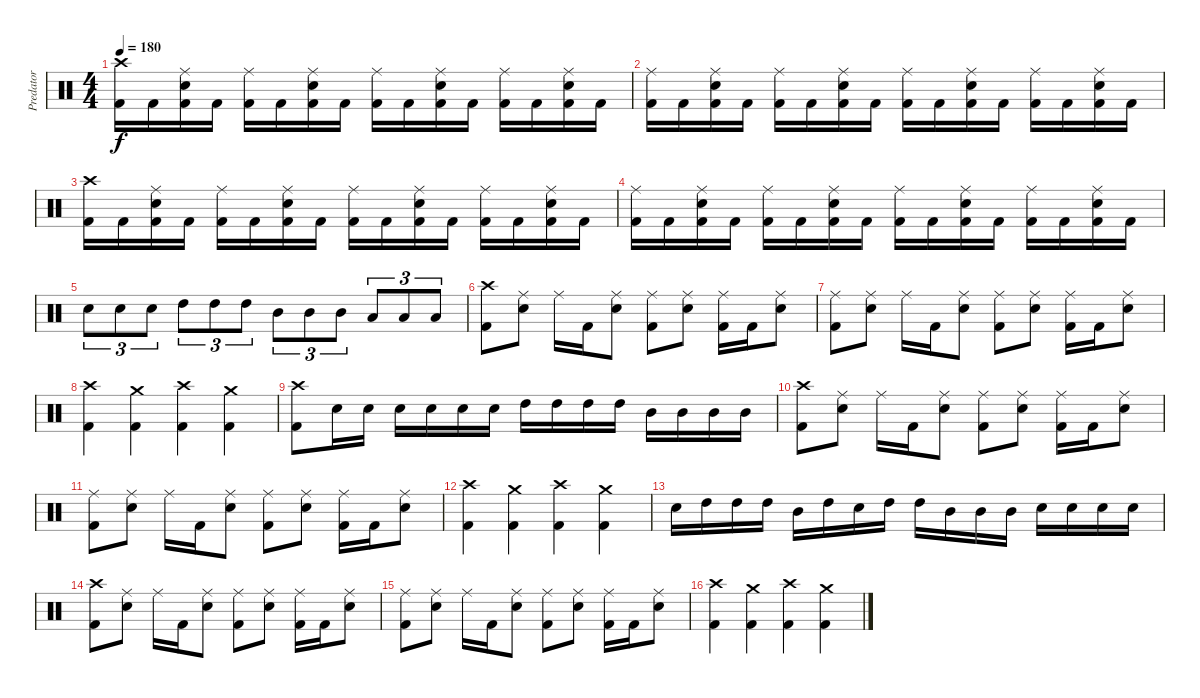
\track ("Predator" "Predator") {instrument percussion}
\staff {score}
\articulation defaults
\ts (4 4)
\tempo 180
\clef neutral
\ks c
("Kick (hit) 2" "Crash high (hit)").16{dy f} "Kick (hit) 2".16 ("Kick (hit) 2" "Electric Snare (hit)" "Ride (middle)").16 "Kick (hit) 2".16 ("Kick (hit) 2" "Ride (middle)").16 "Kick (hit) 2".16 ("Kick (hit) 2" "Electric Snare (hit)" "Ride (middle)").16 "Kick (hit) 2".16 ("Kick (hit) 2" "Ride (middle)").16 "Kick (hit) 2".16 ("Kick (hit) 2" "Electric Snare (hit)" "Ride (middle)").16 "Kick (hit) 2".16 ("Kick (hit) 2" "Ride (middle)").16 "Kick (hit) 2".16 ("Kick (hit) 2" "Electric Snare (hit)" "Ride (middle)").16 "Kick (hit) 2".16 |
("Kick (hit) 2" "Ride (middle)").16 "Kick (hit) 2".16 ("Kick (hit) 2" "Electric Snare (hit)" "Ride (middle)").16 "Kick (hit) 2".16 ("Kick (hit) 2" "Ride (middle)").16 "Kick (hit) 2".16 ("Kick (hit) 2" "Electric Snare (hit)" "Ride (middle)").16 "Kick (hit) 2".16 ("Kick (hit) 2" "Ride (middle)").16 "Kick (hit) 2".16 ("Kick (hit) 2" "Electric Snare (hit)" "Ride (middle)").16 "Kick (hit) 2".16 ("Kick (hit) 2" "Ride (middle)").16 "Kick (hit) 2".16 ("Kick (hit) 2" "Electric Snare (hit)" "Ride (middle)").16 "Kick (hit) 2".16 |
("Kick (hit) 2" "Crash high (hit)").16 "Kick (hit) 2".16 ("Kick (hit) 2" "Electric Snare (hit)" "Ride (middle)").16 "Kick (hit) 2".16 ("Kick (hit) 2" "Ride (middle)").16 "Kick (hit) 2".16 ("Kick (hit) 2" "Electric Snare (hit)" "Ride (middle)").16 "Kick (hit) 2".16 ("Kick (hit) 2" "Ride (middle)").16 "Kick (hit) 2".16 ("Kick (hit) 2" "Electric Snare (hit)" "Ride (middle)").16 "Kick (hit) 2".16 ("Kick (hit) 2" "Ride (middle)").16 "Kick (hit) 2".16 ("Kick (hit) 2" "Electric Snare (hit)" "Ride (middle)").16 "Kick (hit) 2".16 |
("Kick (hit) 2" "Ride (middle)").16 "Kick (hit) 2".16 ("Kick (hit) 2" "Electric Snare (hit)" "Ride (middle)").16 "Kick (hit) 2".16 ("Kick (hit) 2" "Ride (middle)").16 "Kick (hit) 2".16 ("Kick (hit) 2" "Electric Snare (hit)" "Ride (middle)").16 "Kick (hit) 2".16 ("Kick (hit) 2" "Ride (middle)").16 "Kick (hit) 2".16 ("Kick (hit) 2" "Electric Snare (hit)" "Ride (middle)").16 "Kick (hit) 2".16 ("Kick (hit) 2" "Ride (middle)").16 "Kick (hit) 2".16 ("Kick (hit) 2" "Electric Snare (hit)" "Ride (middle)").16 "Kick (hit) 2".16 |
"Electric Snare (hit)".8{tu (3 2)} "Electric Snare (hit)".8{tu (3 2)} "Electric Snare (hit)".8{tu (3 2)} "High Tom (hit)".8{tu (3 2)} "High Tom (hit)".8{tu (3 2)} "High Tom (hit)".8{tu (3 2)} "Mid Tom (hit)".8{tu (3 2)} "Mid Tom (hit)".8{tu (3 2)} "Mid Tom (hit)".8{tu (3 2)} "Low Tom (hit)".8{tu (3 2)} "Low Tom (hit)".8{tu (3 2)} "Low Tom (hit)".8{tu (3 2)} |
("Kick (hit) 2" "Crash high (hit)").8 ("Electric Snare (hit)" "Ride (middle)").8 "Ride (middle)".16 "Kick (hit) 2".16 ("Electric Snare (hit)" "Ride (middle)").8 ("Kick (hit) 2" "Ride (middle)").8 ("Electric Snare (hit)" "Ride (middle)").8 ("Kick (hit) 2" "Ride (middle)").16 "Kick (hit) 2".16 ("Electric Snare (hit)" "Ride (middle)").8 |
("Kick (hit) 2" "Ride (middle)").8 ("Electric Snare (hit)" "Ride (middle)").8 "Ride (middle)".16 "Kick (hit) 2".16 ("Electric Snare (hit)" "Ride (middle)").8 ("Kick (hit) 2" "Ride (middle)").8 ("Electric Snare (hit)" "Ride (middle)").8 ("Kick (hit) 2" "Ride (middle)").16 "Kick (hit) 2".16 ("Electric Snare (hit)" "Ride (middle)").8 |
("Kick (hit) 2" "Crash high (hit)").4 ("Kick (hit) 2" "Crash medium (hit)").4 ("Kick (hit) 2" "Crash high (hit)").4 ("Kick (hit) 2" "Crash medium (hit)").4 |
("Kick (hit) 2" "Crash high (hit)").8 "Electric Snare (hit)".16 "Electric Snare (hit)".16 "Electric Snare (hit)".16 "Electric Snare (hit)".16 "Electric Snare (hit)".16 "Electric Snare (hit)".16 "High Tom (hit)".16 "High Tom (hit)".16 "High Tom (hit)".16 "High Tom (hit)".16 "Mid Tom (hit)".16 "Mid Tom (hit)".16 "Mid Tom (hit)".16 "Mid Tom (hit)".16 |
("Kick (hit) 2" "Crash high (hit)").8 ("Electric Snare (hit)" "Ride (middle)").8 "Ride (middle)".16 "Kick (hit) 2".16 ("Electric Snare (hit)" "Ride (middle)").8 ("Kick (hit) 2" "Ride (middle)").8 ("Electric Snare (hit)" "Ride (middle)").8 ("Kick (hit) 2" "Ride (middle)").16 "Kick (hit) 2".16 ("Electric Snare (hit)" "Ride (middle)").8 |
("Kick (hit) 2" "Ride (middle)").8 ("Electric Snare (hit)" "Ride (middle)").8 "Ride (middle)".16 "Kick (hit) 2".16 ("Electric Snare (hit)" "Ride (middle)").8 ("Kick (hit) 2" "Ride (middle)").8 ("Electric Snare (hit)" "Ride (middle)").8 ("Kick (hit) 2" "Ride (middle)").16 "Kick (hit) 2".16 ("Electric Snare (hit)" "Ride (middle)").8 |
("Kick (hit) 2" "Crash high (hit)").4 ("Kick (hit) 2" "Crash medium (hit)").4 ("Kick (hit) 2" "Crash high (hit)").4 ("Kick (hit) 2" "Crash medium (hit)").4 |
"Electric Snare (hit)".16 "High Tom (hit)".16 "High Tom (hit)".16 "High Tom (hit)".16 "Mid Tom (hit)".16 "High Tom (hit)".16 "Electric Snare (hit)".16 "High Tom (hit)".16 "High Tom (hit)".16 "Mid Tom (hit)".16 "Mid Tom (hit)".16 "Mid Tom (hit)".16 "Electric Snare (hit)".16 "Electric Snare (hit)".16 "Electric Snare (hit)".16 "Electric Snare (hit)".16 |
("Kick (hit) 2" "Crash high (hit)").8 ("Electric Snare (hit)" "Ride (middle)").8 "Ride (middle)".16 "Kick (hit) 2".16 ("Electric Snare (hit)" "Ride (middle)").8 ("Kick (hit) 2" "Ride (middle)").8 ("Electric Snare (hit)" "Ride (middle)").8 ("Kick (hit) 2" "Ride (middle)").16 "Kick (hit) 2".16 ("Electric Snare (hit)" "Ride (middle)").8 |
("Kick (hit) 2" "Ride (middle)").8 ("Electric Snare (hit)" "Ride (middle)").8 "Ride (middle)".16 "Kick (hit) 2".16 ("Electric Snare (hit)" "Ride (middle)").8 ("Kick (hit) 2" "Ride (middle)").8 ("Electric Snare (hit)" "Ride (middle)").8 ("Kick (hit) 2" "Ride (middle)").16 "Kick (hit) 2".16 ("Electric Snare (hit)" "Ride (middle)").8 |
("Kick (hit) 2" "Crash high (hit)").4 ("Kick (hit) 2" "Crash medium (hit)").4 ("Kick (hit) 2" "Crash high (hit)").4 ("Kick (hit) 2" "Crash medium (hit)").4
